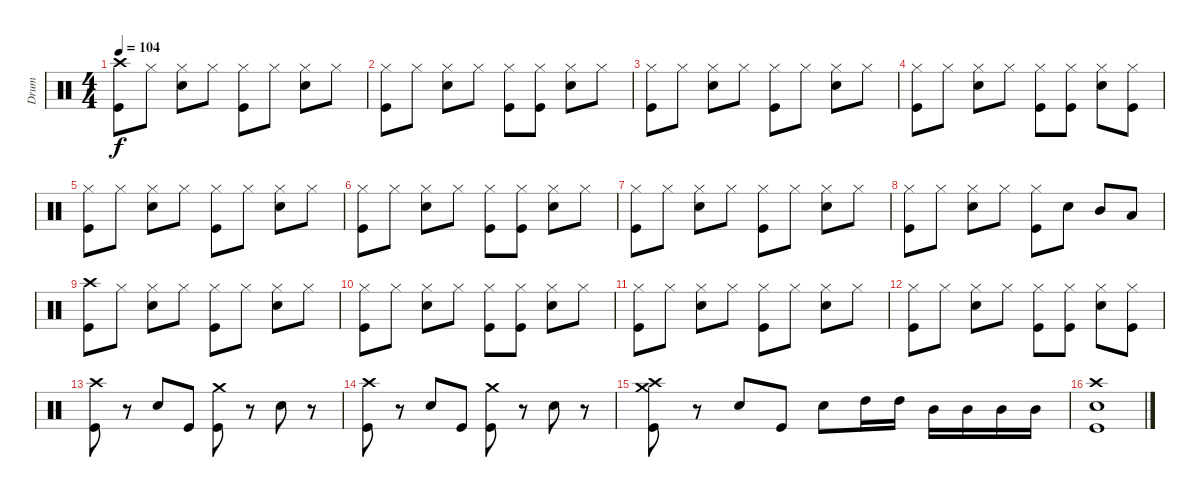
\track ("Drum" "Drum") {instrument percussion}
\staff {score}
\articulation defaults
\ts (4 4)
\tempo 104
\clef neutral
\ks c
("Crash high (hit)" "Kick (hit)").8{dy f} "Hi-Hat (closed)".8 ("Electric Snare (hit)" "Hi-Hat (closed)").8 "Hi-Hat (closed)".8 ("Hi-Hat (closed)" "Kick (hit)").8 "Hi-Hat (closed)".8 ("Electric Snare (hit)" "Hi-Hat (closed)").8 "Hi-Hat (closed)".8 |
("Hi-Hat (closed)" "Kick (hit)").8 "Hi-Hat (closed)".8 ("Electric Snare (hit)" "Hi-Hat (closed)").8 "Hi-Hat (closed)".8 ("Hi-Hat (closed)" "Kick (hit)").8 ("Hi-Hat (closed)" "Kick (hit)").8 ("Electric Snare (hit)" "Hi-Hat (closed)").8 "Hi-Hat (closed)".8 |
("Hi-Hat (closed)" "Kick (hit)").8 "Hi-Hat (closed)".8 ("Electric Snare (hit)" "Hi-Hat (closed)").8 "Hi-Hat (closed)".8 ("Hi-Hat (closed)" "Kick (hit)").8 "Hi-Hat (closed)".8 ("Electric Snare (hit)" "Hi-Hat (closed)").8 "Hi-Hat (closed)".8 |
("Hi-Hat (closed)" "Kick (hit)").8 "Hi-Hat (closed)".8 ("Electric Snare (hit)" "Hi-Hat (closed)").8 "Hi-Hat (closed)".8 ("Hi-Hat (closed)" "Kick (hit)").8 ("Hi-Hat (closed)" "Kick (hit)").8 ("Electric Snare (hit)" "Hi-Hat (closed)").8 ("Hi-Hat (closed)" "Kick (hit)").8 |
("Hi-Hat (closed)" "Kick (hit)").8 "Hi-Hat (closed)".8 ("Electric Snare (hit)" "Hi-Hat (closed)").8 "Hi-Hat (closed)".8 ("Hi-Hat (closed)" "Kick (hit)").8 "Hi-Hat (closed)".8 ("Electric Snare (hit)" "Hi-Hat (closed)").8 "Hi-Hat (closed)".8 |
("Hi-Hat (closed)" "Kick (hit)").8 "Hi-Hat (closed)".8 ("Electric Snare (hit)" "Hi-Hat (closed)").8 "Hi-Hat (closed)".8 ("Hi-Hat (closed)" "Kick (hit)").8 ("Hi-Hat (closed)" "Kick (hit)").8 ("Electric Snare (hit)" "Hi-Hat (closed)").8 "Hi-Hat (closed)".8 |
("Hi-Hat (closed)" "Kick (hit)").8 "Hi-Hat (closed)".8 ("Electric Snare (hit)" "Hi-Hat (closed)").8 "Hi-Hat (closed)".8 ("Hi-Hat (closed)" "Kick (hit)").8 "Hi-Hat (closed)".8 ("Electric Snare (hit)" "Hi-Hat (closed)").8 "Hi-Hat (closed)".8 |
("Hi-Hat (closed)" "Kick (hit)").8 "Hi-Hat (closed)".8 ("Electric Snare (hit)" "Hi-Hat (closed)").8 "Hi-Hat (closed)".8 ("Hi-Hat (closed)" "Kick (hit)").8 "Electric Snare (hit)".8 "Mid Tom (hit)".8 "Low Tom (hit)".8 |
("Crash high (hit)" "Kick (hit)").8 "Hi-Hat (closed)".8 ("Electric Snare (hit)" "Hi-Hat (closed)").8 "Hi-Hat (closed)".8 ("Hi-Hat (closed)" "Kick (hit)").8 "Hi-Hat (closed)".8 ("Electric Snare (hit)" "Hi-Hat (closed)").8 "Hi-Hat (closed)".8 |
("Hi-Hat (closed)" "Kick (hit)").8 "Hi-Hat (closed)".8 ("Electric Snare (hit)" "Hi-Hat (closed)").8 "Hi-Hat (closed)".8 ("Hi-Hat (closed)" "Kick (hit)").8 ("Hi-Hat (closed)" "Kick (hit)").8 ("Electric Snare (hit)" "Hi-Hat (closed)").8 "Hi-Hat (closed)".8 |
("Hi-Hat (closed)" "Kick (hit)").8 "Hi-Hat (closed)".8 ("Electric Snare (hit)" "Hi-Hat (closed)").8 "Hi-Hat (closed)".8 ("Hi-Hat (closed)" "Kick (hit)").8 "Hi-Hat (closed)".8 ("Electric Snare (hit)" "Hi-Hat (closed)").8 "Hi-Hat (closed)".8 |
("Hi-Hat (closed)" "Kick (hit)").8 "Hi-Hat (closed)".8 ("Electric Snare (hit)" "Hi-Hat (closed)").8 "Hi-Hat (closed)".8 ("Hi-Hat (closed)" "Kick (hit)").8 ("Hi-Hat (closed)" "Kick (hit)").8 ("Electric Snare (hit)" "Hi-Hat (closed)").8 ("Hi-Hat (closed)" "Kick (hit)").8 |
("Crash high (hit)" "Kick (hit)").8 r.8 "Electric Snare (hit)".8 "Kick (hit)".8 ("Crash medium (hit)" "Kick (hit)").8 r.8 "Electric Snare (hit)".8 r.8 |
("Crash high (hit)" "Kick (hit)").8 r.8 "Electric Snare (hit)".8 "Kick (hit)".8 ("Crash medium (hit)" "Kick (hit)").8 r.8 "Electric Snare (hit)".8 r.8 |
("Crash medium (hit)" "Crash high (hit)" "Kick (hit)").8 r.8 "Electric Snare (hit)".8 "Kick (hit)".8 "Electric Snare (hit)".8 "High Tom (hit)".16 "High Tom (hit)".16 "Mid Tom (hit)".16 "Mid Tom (hit)".16 "Mid Tom (hit)".16 "Mid Tom (hit)".16 |
("Crash high (hit)" "Electric Snare (hit)" "Kick (hit)").1
